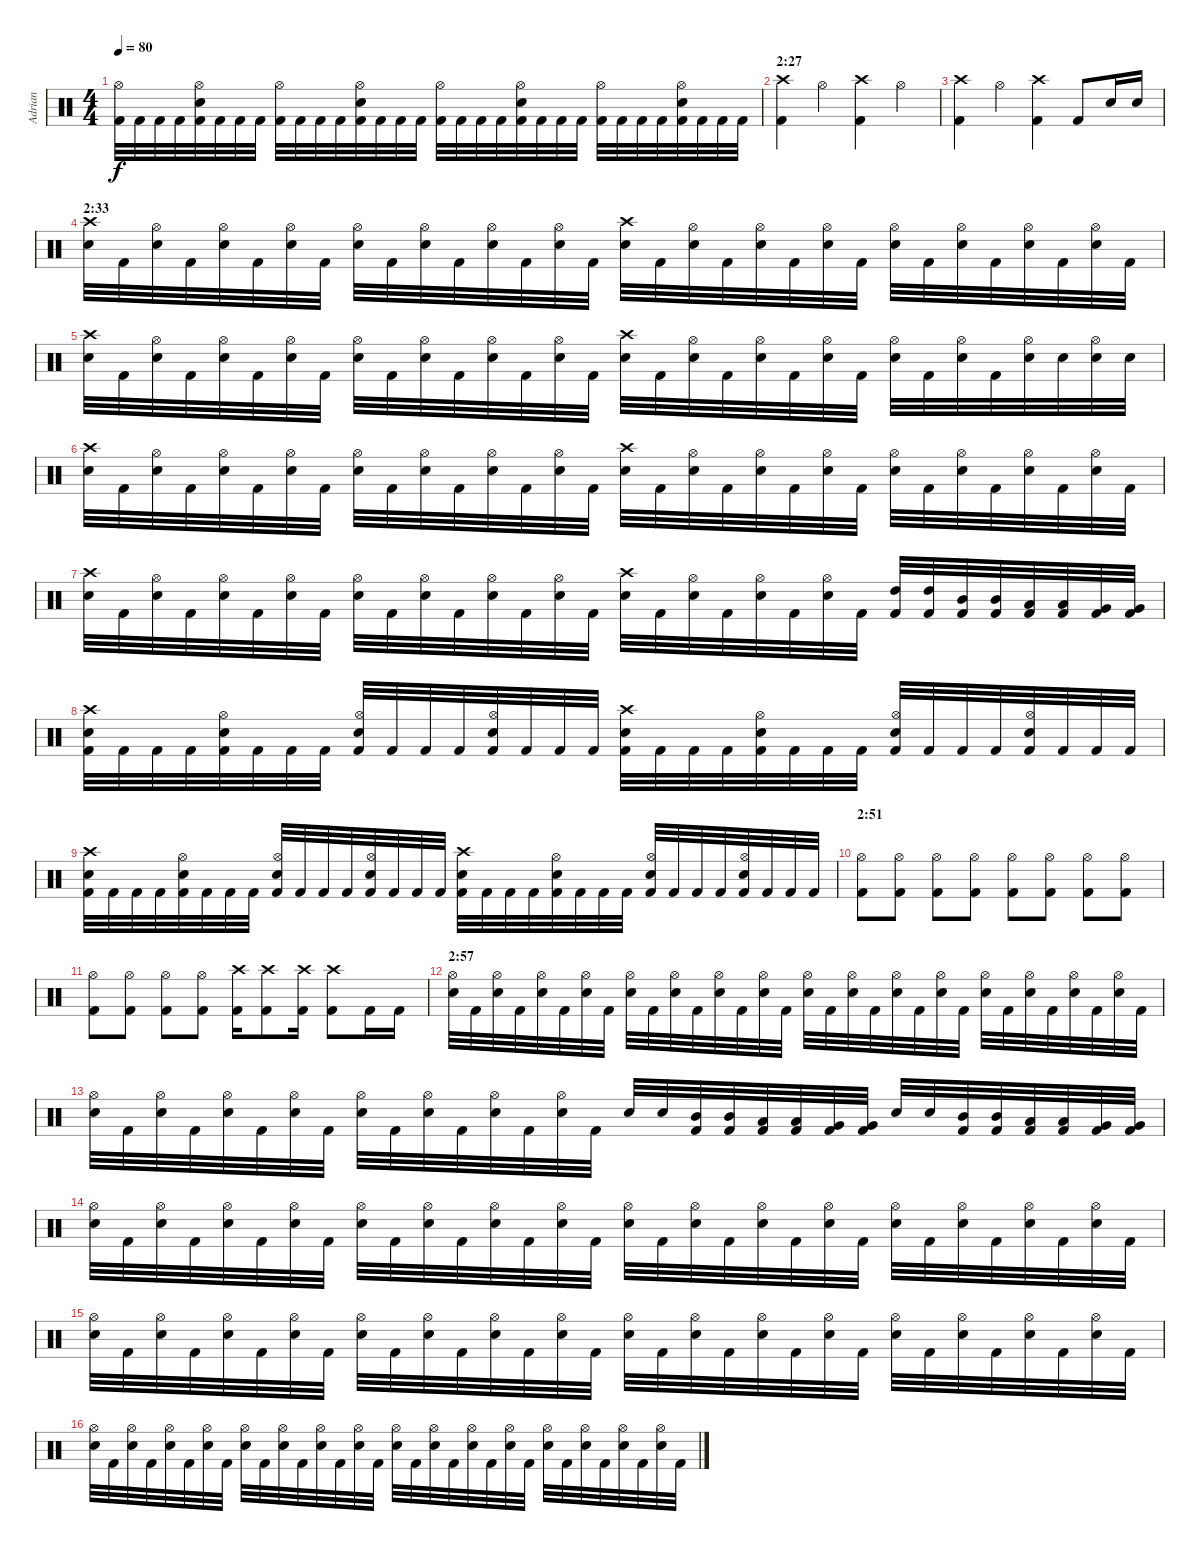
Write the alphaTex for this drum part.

\track ("Adrian" "Adrian") {instrument percussion}
\staff {score}
\articulation defaults
\ts (4 4)
\tempo 80
\clef neutral
\ks c
("Kick (hit) 2" "Hi-Hat (open)").32{dy f} "Kick (hit) 2".32 "Kick (hit) 2".32 "Kick (hit) 2".32 ("Kick (hit) 2" "Snare (hit) 2" "Hi-Hat (open)").32 "Kick (hit) 2".32 "Kick (hit) 2".32 "Kick (hit) 2".32 ("Kick (hit) 2" "Hi-Hat (open)").32 "Kick (hit) 2".32 "Kick (hit) 2".32 "Kick (hit) 2".32 ("Kick (hit) 2" "Snare (hit) 2" "Hi-Hat (open)").32 "Kick (hit) 2".32 "Kick (hit) 2".32 "Kick (hit) 2".32 ("Kick (hit) 2" "Hi-Hat (open)").32 "Kick (hit) 2".32 "Kick (hit) 2".32 "Kick (hit) 2".32 ("Kick (hit) 2" "Snare (hit) 2" "Hi-Hat (open)").32 "Kick (hit) 2".32 "Kick (hit) 2".32 "Kick (hit) 2".32 ("Kick (hit) 2" "Hi-Hat (open)").32 "Kick (hit) 2".32 "Kick (hit) 2".32 "Kick (hit) 2".32 ("Kick (hit) 2" "Snare (hit) 2" "Hi-Hat (open)").32 "Kick (hit) 2".32 "Kick (hit) 2".32 "Kick (hit) 2".32 |
\section ("" "2:27")
("Kick (hit) 2" "Crash high (hit)").4 "Hi-Hat (open)".4 ("Kick (hit) 2" "Crash high (hit)").4 "Hi-Hat (open)".4 |
("Kick (hit) 2" "Crash high (hit)").4 "Hi-Hat (open)".4 ("Kick (hit) 2" "Crash high (hit)").4 "Kick (hit) 2".8 "Snare (hit) 2".16 "Snare (hit) 2".16 |
\section ("" "2:33")
("Snare (hit) 2" "Crash high (hit)").32 "Kick (hit) 2".32 ("Snare (hit) 2" "Hi-Hat (open)").32 "Kick (hit) 2".32 ("Snare (hit) 2" "Hi-Hat (open)").32 "Kick (hit) 2".32 ("Snare (hit) 2" "Hi-Hat (open)").32 "Kick (hit) 2".32 ("Snare (hit) 2" "Hi-Hat (open)").32 "Kick (hit) 2".32 ("Snare (hit) 2" "Hi-Hat (open)").32 "Kick (hit) 2".32 ("Snare (hit) 2" "Hi-Hat (open)").32 "Kick (hit) 2".32 ("Snare (hit) 2" "Hi-Hat (open)").32 "Kick (hit) 2".32 ("Snare (hit) 2" "Crash high (hit)").32 "Kick (hit) 2".32 ("Snare (hit) 2" "Hi-Hat (open)").32 "Kick (hit) 2".32 ("Snare (hit) 2" "Hi-Hat (open)").32 "Kick (hit) 2".32 ("Snare (hit) 2" "Hi-Hat (open)").32 "Kick (hit) 2".32 ("Snare (hit) 2" "Hi-Hat (open)").32 "Kick (hit) 2".32 ("Snare (hit) 2" "Hi-Hat (open)").32 "Kick (hit) 2".32 ("Snare (hit) 2" "Hi-Hat (open)").32 "Kick (hit) 2".32 ("Snare (hit) 2" "Hi-Hat (open)").32 "Kick (hit) 2".32 |
("Snare (hit) 2" "Crash high (hit)").32 "Kick (hit) 2".32 ("Snare (hit) 2" "Hi-Hat (open)").32 "Kick (hit) 2".32 ("Snare (hit) 2" "Hi-Hat (open)").32 "Kick (hit) 2".32 ("Snare (hit) 2" "Hi-Hat (open)").32 "Kick (hit) 2".32 ("Snare (hit) 2" "Hi-Hat (open)").32 "Kick (hit) 2".32 ("Snare (hit) 2" "Hi-Hat (open)").32 "Kick (hit) 2".32 ("Snare (hit) 2" "Hi-Hat (open)").32 "Kick (hit) 2".32 ("Snare (hit) 2" "Hi-Hat (open)").32 "Kick (hit) 2".32 ("Snare (hit) 2" "Crash high (hit)").32 "Kick (hit) 2".32 ("Snare (hit) 2" "Hi-Hat (open)").32 "Kick (hit) 2".32 ("Snare (hit) 2" "Hi-Hat (open)").32 "Kick (hit) 2".32 ("Snare (hit) 2" "Hi-Hat (open)").32 "Kick (hit) 2".32 ("Snare (hit) 2" "Hi-Hat (open)").32 "Kick (hit) 2".32 ("Snare (hit) 2" "Hi-Hat (open)").32 "Kick (hit) 2".32 ("Snare (hit) 2" "Hi-Hat (open)").32 "Snare (hit) 2".32 ("Snare (hit) 2" "Hi-Hat (open)").32 "Snare (hit) 2".32 |
("Snare (hit) 2" "Crash high (hit)").32 "Kick (hit) 2".32 ("Snare (hit) 2" "Hi-Hat (open)").32 "Kick (hit) 2".32 ("Snare (hit) 2" "Hi-Hat (open)").32 "Kick (hit) 2".32 ("Snare (hit) 2" "Hi-Hat (open)").32 "Kick (hit) 2".32 ("Snare (hit) 2" "Hi-Hat (open)").32 "Kick (hit) 2".32 ("Snare (hit) 2" "Hi-Hat (open)").32 "Kick (hit) 2".32 ("Snare (hit) 2" "Hi-Hat (open)").32 "Kick (hit) 2".32 ("Snare (hit) 2" "Hi-Hat (open)").32 "Kick (hit) 2".32 ("Snare (hit) 2" "Crash high (hit)").32 "Kick (hit) 2".32 ("Snare (hit) 2" "Hi-Hat (open)").32 "Kick (hit) 2".32 ("Snare (hit) 2" "Hi-Hat (open)").32 "Kick (hit) 2".32 ("Snare (hit) 2" "Hi-Hat (open)").32 "Kick (hit) 2".32 ("Snare (hit) 2" "Hi-Hat (open)").32 "Kick (hit) 2".32 ("Snare (hit) 2" "Hi-Hat (open)").32 "Kick (hit) 2".32 ("Snare (hit) 2" "Hi-Hat (open)").32 "Kick (hit) 2".32 ("Snare (hit) 2" "Hi-Hat (open)").32 "Kick (hit) 2".32 |
("Snare (hit) 2" "Crash high (hit)").32 "Kick (hit) 2".32 ("Snare (hit) 2" "Hi-Hat (open)").32 "Kick (hit) 2".32 ("Snare (hit) 2" "Hi-Hat (open)").32 "Kick (hit) 2".32 ("Snare (hit) 2" "Hi-Hat (open)").32 "Kick (hit) 2".32 ("Snare (hit) 2" "Hi-Hat (open)").32 "Kick (hit) 2".32 ("Snare (hit) 2" "Hi-Hat (open)").32 "Kick (hit) 2".32 ("Snare (hit) 2" "Hi-Hat (open)").32 "Kick (hit) 2".32 ("Snare (hit) 2" "Hi-Hat (open)").32 "Kick (hit) 2".32 ("Snare (hit) 2" "Crash high (hit)").32 "Kick (hit) 2".32 ("Snare (hit) 2" "Hi-Hat (open)").32 "Kick (hit) 2".32 ("Snare (hit) 2" "Hi-Hat (open)").32 "Kick (hit) 2".32 ("Snare (hit) 2" "Hi-Hat (open)").32 "Kick (hit) 2".32 ("Kick (hit) 2" "High Tom (hit)").32 ("Kick (hit) 2" "High Tom (hit)").32 ("Kick (hit) 2" "Mid Tom (hit)").32 ("Kick (hit) 2" "Mid Tom (hit)").32 ("Kick (hit) 2" "Low Tom (hit)").32 ("Kick (hit) 2" "Low Tom (hit)").32 ("Kick (hit) 2" "Very Low Tom (hit)").32 ("Kick (hit) 2" "Very Low Tom (hit)").32 |
("Kick (hit) 2" "Snare (hit) 2" "Crash high (hit)").32 "Kick (hit) 2".32 "Kick (hit) 2".32 "Kick (hit) 2".32 ("Kick (hit) 2" "Snare (hit) 2" "Hi-Hat (open)").32 "Kick (hit) 2".32 "Kick (hit) 2".32 "Kick (hit) 2".32 ("Kick (hit) 2" "Snare (hit) 2" "Hi-Hat (open)").32 "Kick (hit) 2".32 "Kick (hit) 2".32 "Kick (hit) 2".32 ("Kick (hit) 2" "Snare (hit) 2" "Hi-Hat (open)").32 "Kick (hit) 2".32 "Kick (hit) 2".32 "Kick (hit) 2".32 ("Kick (hit) 2" "Snare (hit) 2" "Crash high (hit)").32 "Kick (hit) 2".32 "Kick (hit) 2".32 "Kick (hit) 2".32 ("Kick (hit) 2" "Snare (hit) 2" "Hi-Hat (open)").32 "Kick (hit) 2".32 "Kick (hit) 2".32 "Kick (hit) 2".32 ("Kick (hit) 2" "Snare (hit) 2" "Hi-Hat (open)").32 "Kick (hit) 2".32 "Kick (hit) 2".32 "Kick (hit) 2".32 ("Kick (hit) 2" "Snare (hit) 2" "Hi-Hat (open)").32 "Kick (hit) 2".32 "Kick (hit) 2".32 "Kick (hit) 2".32 |
("Kick (hit) 2" "Snare (hit) 2" "Crash high (hit)").32 "Kick (hit) 2".32 "Kick (hit) 2".32 "Kick (hit) 2".32 ("Kick (hit) 2" "Snare (hit) 2" "Hi-Hat (open)").32 "Kick (hit) 2".32 "Kick (hit) 2".32 "Kick (hit) 2".32 ("Kick (hit) 2" "Snare (hit) 2" "Hi-Hat (open)").32 "Kick (hit) 2".32 "Kick (hit) 2".32 "Kick (hit) 2".32 ("Kick (hit) 2" "Snare (hit) 2" "Hi-Hat (open)").32 "Kick (hit) 2".32 "Kick (hit) 2".32 "Kick (hit) 2".32 ("Kick (hit) 2" "Snare (hit) 2" "Crash high (hit)").32 "Kick (hit) 2".32 "Kick (hit) 2".32 "Kick (hit) 2".32 ("Kick (hit) 2" "Snare (hit) 2" "Hi-Hat (open)").32 "Kick (hit) 2".32 "Kick (hit) 2".32 "Kick (hit) 2".32 ("Kick (hit) 2" "Snare (hit) 2" "Hi-Hat (open)").32 "Kick (hit) 2".32 "Kick (hit) 2".32 "Kick (hit) 2".32 ("Kick (hit) 2" "Snare (hit) 2" "Hi-Hat (open)").32 "Kick (hit) 2".32 "Kick (hit) 2".32 "Kick (hit) 2".32 |
\section ("" "2:51")
("Kick (hit) 2" "Hi-Hat (open)").8 ("Kick (hit) 2" "Hi-Hat (open)").8 ("Kick (hit) 2" "Hi-Hat (open)").8 ("Kick (hit) 2" "Hi-Hat (open)").8 ("Kick (hit) 2" "Hi-Hat (open)").8 ("Kick (hit) 2" "Hi-Hat (open)").8 ("Kick (hit) 2" "Hi-Hat (open)").8 ("Kick (hit) 2" "Hi-Hat (open)").8 |
("Kick (hit) 2" "Hi-Hat (open)").8 ("Kick (hit) 2" "Hi-Hat (open)").8 ("Kick (hit) 2" "Hi-Hat (open)").8 ("Kick (hit) 2" "Hi-Hat (open)").8 ("Kick (hit) 2" "Crash high (hit)").16 ("Kick (hit) 2" "Crash high (hit)").8 ("Kick (hit) 2" "Crash high (hit)").16 ("Kick (hit) 2" "Crash high (hit)").8 "Kick (hit) 2".16 "Kick (hit) 2".16 |
\section ("" "2:57")
("Snare (hit) 2" "Hi-Hat (open)").32 "Kick (hit) 2".32 ("Snare (hit) 2" "Hi-Hat (open)").32 "Kick (hit) 2".32 ("Snare (hit) 2" "Hi-Hat (open)").32 "Kick (hit) 2".32 ("Snare (hit) 2" "Hi-Hat (open)").32 "Kick (hit) 2".32 ("Snare (hit) 2" "Hi-Hat (open)").32 "Kick (hit) 2".32 ("Snare (hit) 2" "Hi-Hat (open)").32 "Kick (hit) 2".32 ("Snare (hit) 2" "Hi-Hat (open)").32 "Kick (hit) 2".32 ("Snare (hit) 2" "Hi-Hat (open)").32 "Kick (hit) 2".32 ("Snare (hit) 2" "Hi-Hat (open)").32 "Kick (hit) 2".32 ("Snare (hit) 2" "Hi-Hat (open)").32 "Kick (hit) 2".32 ("Snare (hit) 2" "Hi-Hat (open)").32 "Kick (hit) 2".32 ("Snare (hit) 2" "Hi-Hat (open)").32 "Kick (hit) 2".32 ("Snare (hit) 2" "Hi-Hat (open)").32 "Kick (hit) 2".32 ("Snare (hit) 2" "Hi-Hat (open)").32 "Kick (hit) 2".32 ("Snare (hit) 2" "Hi-Hat (open)").32 "Kick (hit) 2".32 ("Snare (hit) 2" "Hi-Hat (open)").32 "Kick (hit) 2".32 |
("Snare (hit) 2" "Hi-Hat (open)").32 "Kick (hit) 2".32 ("Snare (hit) 2" "Hi-Hat (open)").32 "Kick (hit) 2".32 ("Snare (hit) 2" "Hi-Hat (open)").32 "Kick (hit) 2".32 ("Snare (hit) 2" "Hi-Hat (open)").32 "Kick (hit) 2".32 ("Snare (hit) 2" "Hi-Hat (open)").32 "Kick (hit) 2".32 ("Snare (hit) 2" "Hi-Hat (open)").32 "Kick (hit) 2".32 ("Snare (hit) 2" "Hi-Hat (open)").32 "Kick (hit) 2".32 ("Snare (hit) 2" "Hi-Hat (open)").32 "Kick (hit) 2".32 "Snare (hit) 2".32 "Snare (hit) 2".32 ("Kick (hit) 2" "Mid Tom (hit)").32 ("Kick (hit) 2" "Mid Tom (hit)").32 ("Kick (hit) 2" "Low Tom (hit)").32 ("Kick (hit) 2" "Low Tom (hit)").32 ("Kick (hit) 2" "Very Low Tom (hit)").32 ("Kick (hit) 2" "Very Low Tom (hit)").32 "Snare (hit) 2".32 "Snare (hit) 2".32 ("Kick (hit) 2" "Mid Tom (hit)").32 ("Kick (hit) 2" "Mid Tom (hit)").32 ("Kick (hit) 2" "Low Tom (hit)").32 ("Kick (hit) 2" "Low Tom (hit)").32 ("Kick (hit) 2" "Very Low Tom (hit)").32 ("Kick (hit) 2" "Very Low Tom (hit)").32 |
("Snare (hit) 2" "Hi-Hat (open)").32 "Kick (hit) 2".32 ("Snare (hit) 2" "Hi-Hat (open)").32 "Kick (hit) 2".32 ("Snare (hit) 2" "Hi-Hat (open)").32 "Kick (hit) 2".32 ("Snare (hit) 2" "Hi-Hat (open)").32 "Kick (hit) 2".32 ("Snare (hit) 2" "Hi-Hat (open)").32 "Kick (hit) 2".32 ("Snare (hit) 2" "Hi-Hat (open)").32 "Kick (hit) 2".32 ("Snare (hit) 2" "Hi-Hat (open)").32 "Kick (hit) 2".32 ("Snare (hit) 2" "Hi-Hat (open)").32 "Kick (hit) 2".32 ("Snare (hit) 2" "Hi-Hat (open)").32 "Kick (hit) 2".32 ("Snare (hit) 2" "Hi-Hat (open)").32 "Kick (hit) 2".32 ("Snare (hit) 2" "Hi-Hat (open)").32 "Kick (hit) 2".32 ("Snare (hit) 2" "Hi-Hat (open)").32 "Kick (hit) 2".32 ("Snare (hit) 2" "Hi-Hat (open)").32 "Kick (hit) 2".32 ("Snare (hit) 2" "Hi-Hat (open)").32 "Kick (hit) 2".32 ("Snare (hit) 2" "Hi-Hat (open)").32 "Kick (hit) 2".32 ("Snare (hit) 2" "Hi-Hat (open)").32 "Kick (hit) 2".32 |
("Snare (hit) 2" "Hi-Hat (open)").32 "Kick (hit) 2".32 ("Snare (hit) 2" "Hi-Hat (open)").32 "Kick (hit) 2".32 ("Snare (hit) 2" "Hi-Hat (open)").32 "Kick (hit) 2".32 ("Snare (hit) 2" "Hi-Hat (open)").32 "Kick (hit) 2".32 ("Snare (hit) 2" "Hi-Hat (open)").32 "Kick (hit) 2".32 ("Snare (hit) 2" "Hi-Hat (open)").32 "Kick (hit) 2".32 ("Snare (hit) 2" "Hi-Hat (open)").32 "Kick (hit) 2".32 ("Snare (hit) 2" "Hi-Hat (open)").32 "Kick (hit) 2".32 ("Snare (hit) 2" "Hi-Hat (open)").32 "Kick (hit) 2".32 ("Snare (hit) 2" "Hi-Hat (open)").32 "Kick (hit) 2".32 ("Snare (hit) 2" "Hi-Hat (open)").32 "Kick (hit) 2".32 ("Snare (hit) 2" "Hi-Hat (open)").32 "Kick (hit) 2".32 ("Snare (hit) 2" "Hi-Hat (open)").32 "Kick (hit) 2".32 ("Snare (hit) 2" "Hi-Hat (open)").32 "Kick (hit) 2".32 ("Snare (hit) 2" "Hi-Hat (open)").32 "Kick (hit) 2".32 ("Snare (hit) 2" "Hi-Hat (open)").32 "Kick (hit) 2".32 |
("Snare (hit) 2" "Hi-Hat (open)").32 "Kick (hit) 2".32 ("Snare (hit) 2" "Hi-Hat (open)").32 "Kick (hit) 2".32 ("Snare (hit) 2" "Hi-Hat (open)").32 "Kick (hit) 2".32 ("Snare (hit) 2" "Hi-Hat (open)").32 "Kick (hit) 2".32 ("Snare (hit) 2" "Hi-Hat (open)").32 "Kick (hit) 2".32 ("Snare (hit) 2" "Hi-Hat (open)").32 "Kick (hit) 2".32 ("Snare (hit) 2" "Hi-Hat (open)").32 "Kick (hit) 2".32 ("Snare (hit) 2" "Hi-Hat (open)").32 "Kick (hit) 2".32 ("Snare (hit) 2" "Hi-Hat (open)").32 "Kick (hit) 2".32 ("Snare (hit) 2" "Hi-Hat (open)").32 "Kick (hit) 2".32 ("Snare (hit) 2" "Hi-Hat (open)").32 "Kick (hit) 2".32 ("Snare (hit) 2" "Hi-Hat (open)").32 "Kick (hit) 2".32 ("Snare (hit) 2" "Hi-Hat (open)").32 "Kick (hit) 2".32 ("Snare (hit) 2" "Hi-Hat (open)").32 "Kick (hit) 2".32 ("Snare (hit) 2" "Hi-Hat (open)").32 "Kick (hit) 2".32 ("Snare (hit) 2" "Hi-Hat (open)").32 "Kick (hit) 2".32
